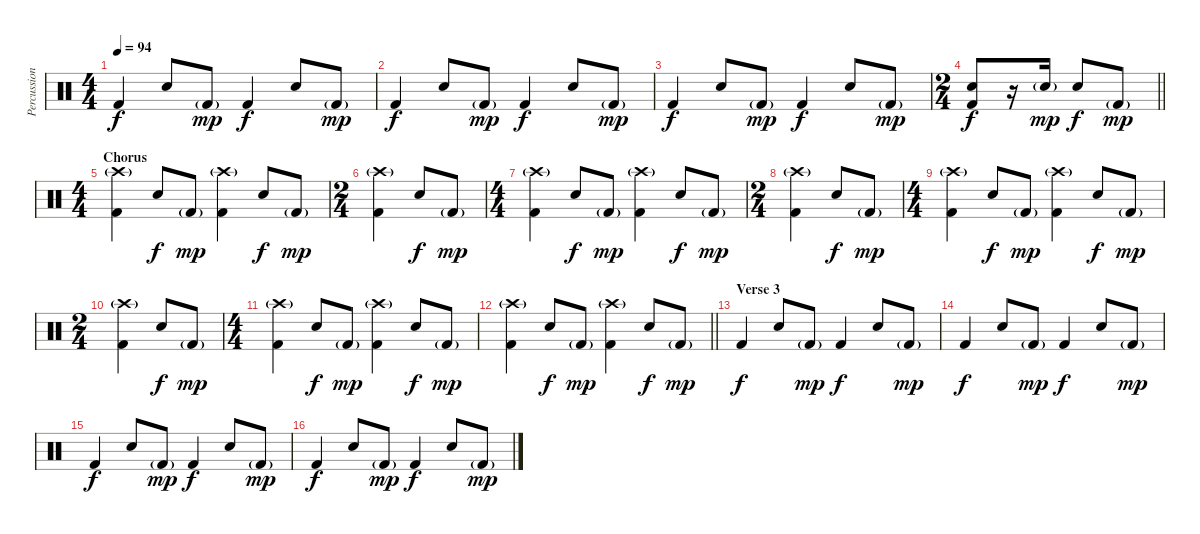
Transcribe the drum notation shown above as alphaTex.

\track ("Percussion" "Percussion") {instrument percussion}
\staff {score}
\articulation defaults
\ts (4 4)
\tempo 94
\clef neutral
\ks c "Kick (hit) 2".4{dy f} "Snare (hit) 2".8 "Kick (hit) 2"{g}.8{dy mp} "Kick (hit) 2".4{dy f} "Snare (hit) 2".8 "Kick (hit) 2"{g}.8{dy mp}
|
"Kick (hit) 2".4{dy f} "Snare (hit) 2".8 "Kick (hit) 2"{g}.8{dy mp} "Kick (hit) 2".4{dy f} "Snare (hit) 2".8 "Kick (hit) 2"{g}.8{dy mp} |
"Kick (hit) 2".4{dy f} "Snare (hit) 2".8 "Kick (hit) 2"{g}.8{dy mp} "Kick (hit) 2".4{dy f} "Snare (hit) 2".8 "Kick (hit) 2"{g}.8{dy mp} |
\ts (2 4)
\barLineRight lightlight
("Snare (hit) 2" "Kick (hit) 2").8{dy f} r.16 "Snare (hit) 2"{g}.16{dy mp} "Snare (hit) 2".8{dy f} "Kick (hit) 2"{g}.8{dy mp} |
\ts (4 4)
\section ("" "Chorus")
("Crash high (hit)"{g} "Kick (hit) 2").4 "Snare (hit) 2".8{dy f} "Kick (hit) 2"{g}.8{dy mp} ("Crash high (hit)"{g} "Kick (hit) 2").4 "Snare (hit) 2".8{dy f} "Kick (hit) 2"{g}.8{dy mp} |
\ts (2 4)
("Crash high (hit)"{g} "Kick (hit) 2").4 "Snare (hit) 2".8{dy f} "Kick (hit) 2"{g}.8{dy mp} |
\ts (4 4)
("Crash high (hit)"{g} "Kick (hit) 2").4 "Snare (hit) 2".8{dy f} "Kick (hit) 2"{g}.8{dy mp} ("Crash high (hit)"{g} "Kick (hit) 2").4 "Snare (hit) 2".8{dy f} "Kick (hit) 2"{g}.8{dy mp} |
\ts (2 4)
("Crash high (hit)"{g} "Kick (hit) 2").4 "Snare (hit) 2".8{dy f} "Kick (hit) 2"{g}.8{dy mp} |
\ts (4 4)
("Crash high (hit)"{g} "Kick (hit) 2").4 "Snare (hit) 2".8{dy f} "Kick (hit) 2"{g}.8{dy mp} ("Crash high (hit)"{g} "Kick (hit) 2").4 "Snare (hit) 2".8{dy f} "Kick (hit) 2"{g}.8{dy mp} |
\ts (2 4)
("Crash high (hit)"{g} "Kick (hit) 2").4 "Snare (hit) 2".8{dy f} "Kick (hit) 2"{g}.8{dy mp} |
\ts (4 4)
("Crash high (hit)"{g} "Kick (hit) 2").4 "Snare (hit) 2".8{dy f} "Kick (hit) 2"{g}.8{dy mp} ("Crash high (hit)"{g} "Kick (hit) 2").4 "Snare (hit) 2".8{dy f} "Kick (hit) 2"{g}.8{dy mp} |
\barLineRight lightlight
("Crash high (hit)"{g} "Kick (hit) 2").4 "Snare (hit) 2".8{dy f} "Kick (hit) 2"{g}.8{dy mp} ("Crash high (hit)"{g} "Kick (hit) 2").4 "Snare (hit) 2".8{dy f} "Kick (hit) 2"{g}.8{dy mp} |
\section ("" "Verse 3")
"Kick (hit) 2".4{dy f} "Snare (hit) 2".8 "Kick (hit) 2"{g}.8{dy mp} "Kick (hit) 2".4{dy f} "Snare (hit) 2".8 "Kick (hit) 2"{g}.8{dy mp} |
"Kick (hit) 2".4{dy f} "Snare (hit) 2".8 "Kick (hit) 2"{g}.8{dy mp} "Kick (hit) 2".4{dy f} "Snare (hit) 2".8 "Kick (hit) 2"{g}.8{dy mp} |
"Kick (hit) 2".4{dy f} "Snare (hit) 2".8 "Kick (hit) 2"{g}.8{dy mp} "Kick (hit) 2".4{dy f} "Snare (hit) 2".8 "Kick (hit) 2"{g}.8{dy mp} |
"Kick (hit) 2".4{dy f} "Snare (hit) 2".8 "Kick (hit) 2"{g}.8{dy mp} "Kick (hit) 2".4{dy f} "Snare (hit) 2".8 "Kick (hit) 2"{g}.8{dy mp}
